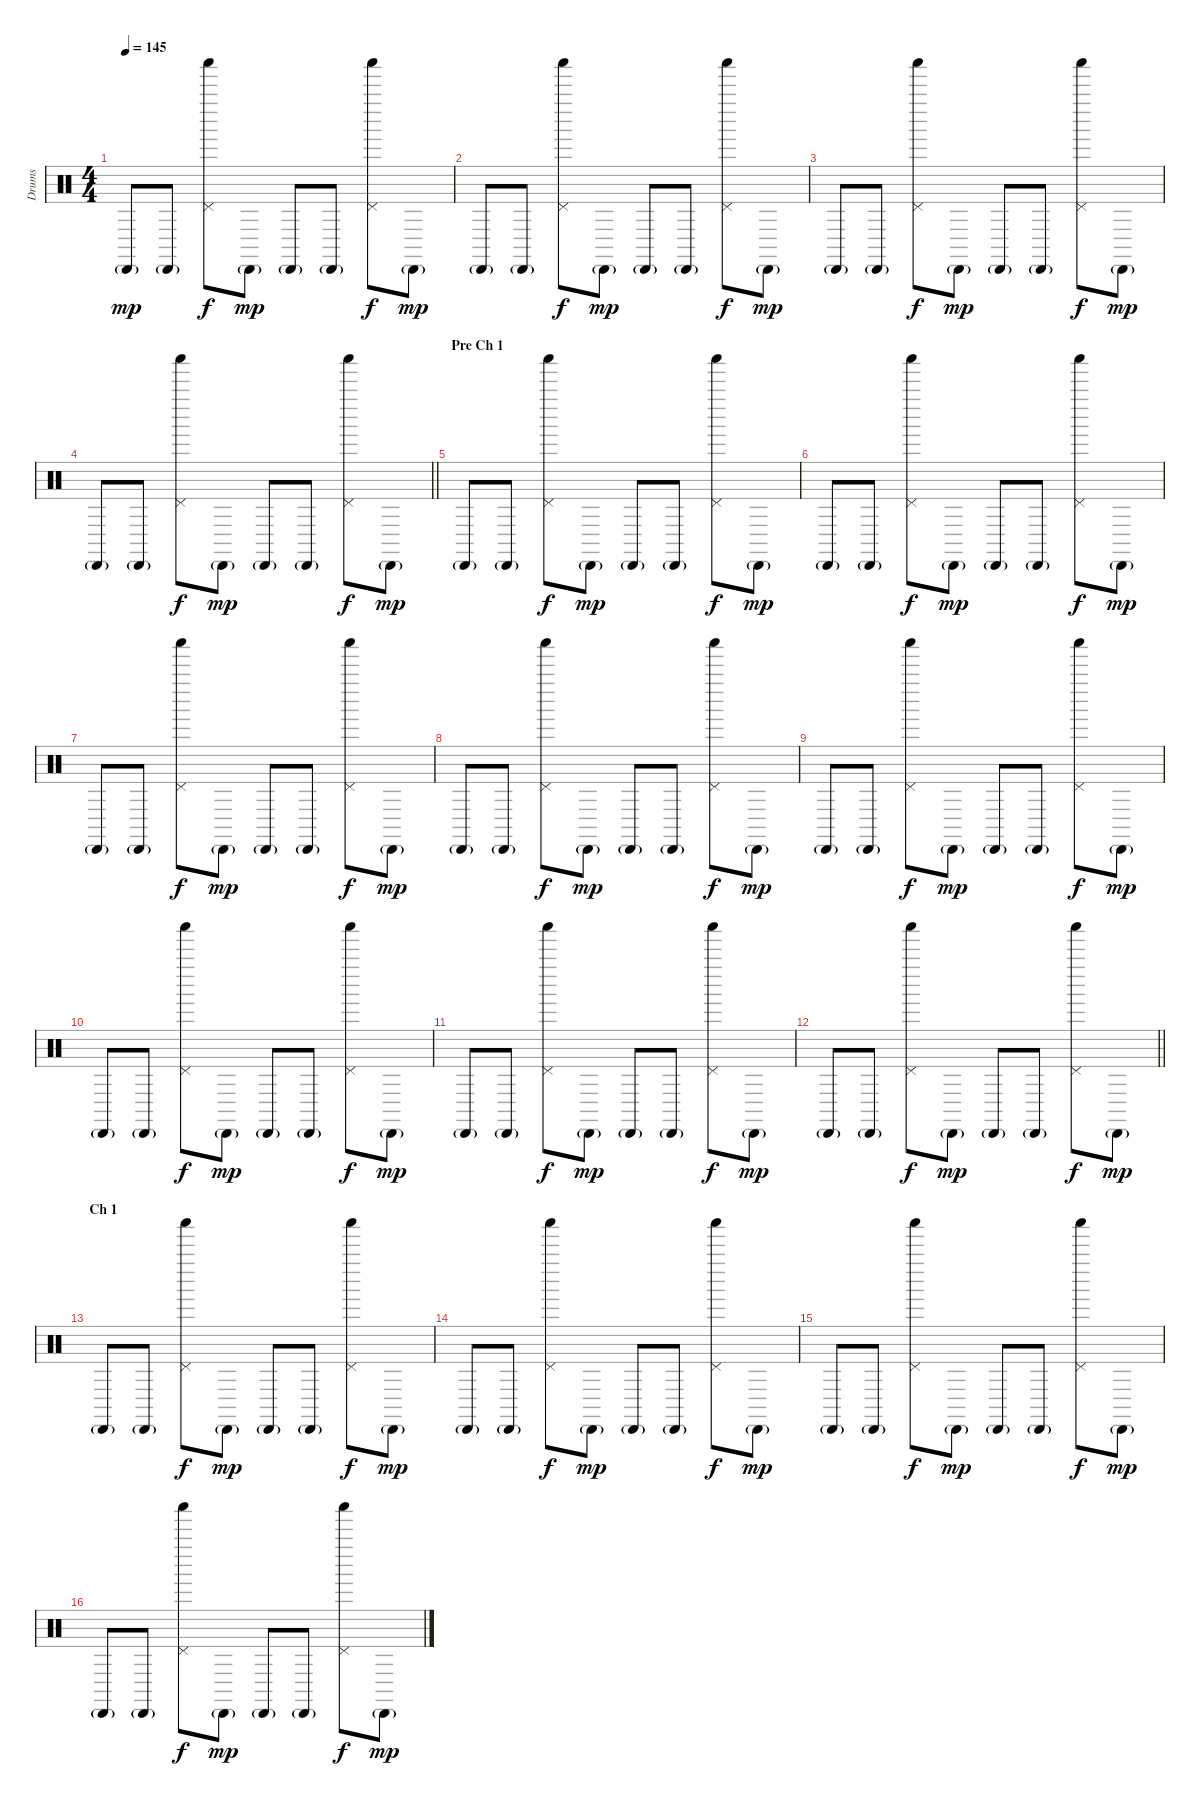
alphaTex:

\track ("Drums" "Drums") {instrument percussion}
\staff {score}
\articulation defaults
\ts (4 4)
\tempo 145
\clef neutral
\ks c "Cabasa (hit)"{g}.8{dy mp} "Cabasa (hit)"{g}.8
("Shaker (hit)" "Pedal Hi-Hat (hit)").8{dy f} "Cabasa (hit)"{g}.8{dy mp} "Cabasa (hit)"{g}.8 "Cabasa (hit)"{g}.8 ("Shaker (hit)" "Pedal Hi-Hat (hit)").8{dy f} "Cabasa (hit)"{g}.8{dy mp} |
"Cabasa (hit)"{g}.8 "Cabasa (hit)"{g}.8 ("Shaker (hit)" "Pedal Hi-Hat (hit)").8{dy f} "Cabasa (hit)"{g}.8{dy mp} "Cabasa (hit)"{g}.8 "Cabasa (hit)"{g}.8 ("Shaker (hit)" "Pedal Hi-Hat (hit)").8{dy f} "Cabasa (hit)"{g}.8{dy mp} |
"Cabasa (hit)"{g}.8 "Cabasa (hit)"{g}.8 ("Shaker (hit)" "Pedal Hi-Hat (hit)").8{dy f} "Cabasa (hit)"{g}.8{dy mp} "Cabasa (hit)"{g}.8 "Cabasa (hit)"{g}.8 ("Shaker (hit)" "Pedal Hi-Hat (hit)").8{dy f} "Cabasa (hit)"{g}.8{dy mp} |
\barLineRight lightlight "Cabasa (hit)"{g}.8 "Cabasa (hit)"{g}.8
("Shaker (hit)" "Pedal Hi-Hat (hit)").8{dy f} "Cabasa (hit)"{g}.8{dy mp} "Cabasa (hit)"{g}.8 "Cabasa (hit)"{g}.8 ("Shaker (hit)" "Pedal Hi-Hat (hit)").8{dy f} "Cabasa (hit)"{g}.8{dy mp} |
\section ("" "Pre Ch 1")
"Cabasa (hit)"{g}.8 "Cabasa (hit)"{g}.8 ("Shaker (hit)" "Pedal Hi-Hat (hit)").8{dy f} "Cabasa (hit)"{g}.8{dy mp} "Cabasa (hit)"{g}.8 "Cabasa (hit)"{g}.8 ("Shaker (hit)" "Pedal Hi-Hat (hit)").8{dy f} "Cabasa (hit)"{g}.8{dy mp} |
"Cabasa (hit)"{g}.8 "Cabasa (hit)"{g}.8 ("Shaker (hit)" "Pedal Hi-Hat (hit)").8{dy f} "Cabasa (hit)"{g}.8{dy mp} "Cabasa (hit)"{g}.8 "Cabasa (hit)"{g}.8 ("Shaker (hit)" "Pedal Hi-Hat (hit)").8{dy f} "Cabasa (hit)"{g}.8{dy mp} |
"Cabasa (hit)"{g}.8 "Cabasa (hit)"{g}.8 ("Shaker (hit)" "Pedal Hi-Hat (hit)").8{dy f} "Cabasa (hit)"{g}.8{dy mp} "Cabasa (hit)"{g}.8 "Cabasa (hit)"{g}.8 ("Shaker (hit)" "Pedal Hi-Hat (hit)").8{dy f} "Cabasa (hit)"{g}.8{dy mp} |
"Cabasa (hit)"{g}.8 "Cabasa (hit)"{g}.8 ("Shaker (hit)" "Pedal Hi-Hat (hit)").8{dy f} "Cabasa (hit)"{g}.8{dy mp} "Cabasa (hit)"{g}.8 "Cabasa (hit)"{g}.8 ("Shaker (hit)" "Pedal Hi-Hat (hit)").8{dy f} "Cabasa (hit)"{g}.8{dy mp} |
"Cabasa (hit)"{g}.8 "Cabasa (hit)"{g}.8 ("Shaker (hit)" "Pedal Hi-Hat (hit)").8{dy f} "Cabasa (hit)"{g}.8{dy mp} "Cabasa (hit)"{g}.8 "Cabasa (hit)"{g}.8 ("Shaker (hit)" "Pedal Hi-Hat (hit)").8{dy f} "Cabasa (hit)"{g}.8{dy mp} |
"Cabasa (hit)"{g}.8 "Cabasa (hit)"{g}.8 ("Shaker (hit)" "Pedal Hi-Hat (hit)").8{dy f} "Cabasa (hit)"{g}.8{dy mp} "Cabasa (hit)"{g}.8 "Cabasa (hit)"{g}.8 ("Shaker (hit)" "Pedal Hi-Hat (hit)").8{dy f} "Cabasa (hit)"{g}.8{dy mp} |
"Cabasa (hit)"{g}.8 "Cabasa (hit)"{g}.8 ("Shaker (hit)" "Pedal Hi-Hat (hit)").8{dy f} "Cabasa (hit)"{g}.8{dy mp} "Cabasa (hit)"{g}.8 "Cabasa (hit)"{g}.8 ("Shaker (hit)" "Pedal Hi-Hat (hit)").8{dy f} "Cabasa (hit)"{g}.8{dy mp} |
\barLineRight lightlight "Cabasa (hit)"{g}.8 "Cabasa (hit)"{g}.8
("Shaker (hit)" "Pedal Hi-Hat (hit)").8{dy f} "Cabasa (hit)"{g}.8{dy mp} "Cabasa (hit)"{g}.8 "Cabasa (hit)"{g}.8 ("Shaker (hit)" "Pedal Hi-Hat (hit)").8{dy f} "Cabasa (hit)"{g}.8{dy mp} |
\section ("" "Ch 1")
"Cabasa (hit)"{g}.8 "Cabasa (hit)"{g}.8 ("Shaker (hit)" "Pedal Hi-Hat (hit)").8{dy f} "Cabasa (hit)"{g}.8{dy mp} "Cabasa (hit)"{g}.8 "Cabasa (hit)"{g}.8 ("Shaker (hit)" "Pedal Hi-Hat (hit)").8{dy f} "Cabasa (hit)"{g}.8{dy mp} |
"Cabasa (hit)"{g}.8 "Cabasa (hit)"{g}.8 ("Shaker (hit)" "Pedal Hi-Hat (hit)").8{dy f} "Cabasa (hit)"{g}.8{dy mp} "Cabasa (hit)"{g}.8 "Cabasa (hit)"{g}.8 ("Shaker (hit)" "Pedal Hi-Hat (hit)").8{dy f} "Cabasa (hit)"{g}.8{dy mp} |
"Cabasa (hit)"{g}.8 "Cabasa (hit)"{g}.8 ("Shaker (hit)" "Pedal Hi-Hat (hit)").8{dy f} "Cabasa (hit)"{g}.8{dy mp} "Cabasa (hit)"{g}.8 "Cabasa (hit)"{g}.8 ("Shaker (hit)" "Pedal Hi-Hat (hit)").8{dy f} "Cabasa (hit)"{g}.8{dy mp} |
"Cabasa (hit)"{g}.8 "Cabasa (hit)"{g}.8 ("Shaker (hit)" "Pedal Hi-Hat (hit)").8{dy f} "Cabasa (hit)"{g}.8{dy mp} "Cabasa (hit)"{g}.8 "Cabasa (hit)"{g}.8 ("Shaker (hit)" "Pedal Hi-Hat (hit)").8{dy f} "Cabasa (hit)"{g}.8{dy mp}
